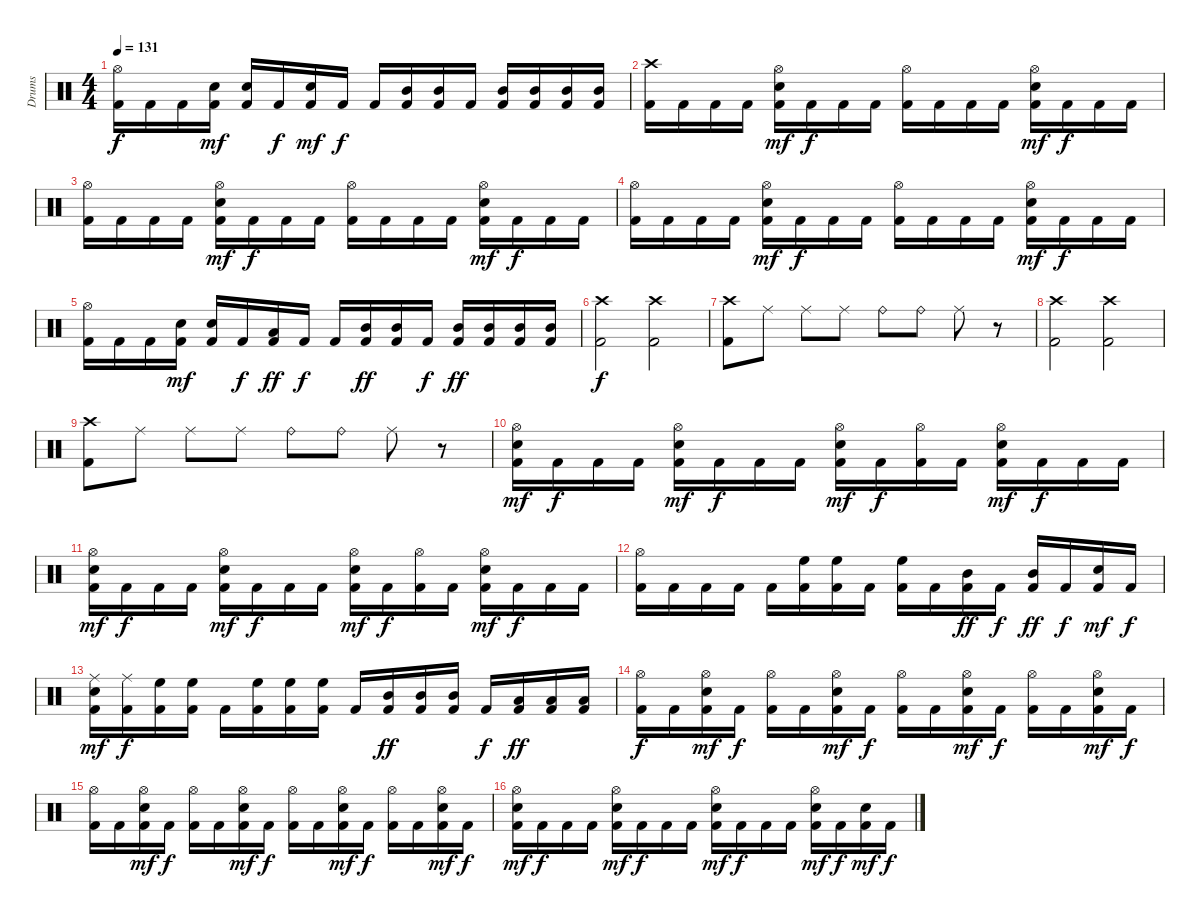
\track ("Drums" "Drums") {instrument percussion}
\staff {score}
\articulation defaults
\ts (4 4)
\tempo 131
\clef neutral
\ks c
("Hi-Hat (open)" "Kick (hit) 2").16{dy f} "Kick (hit) 2".16 "Kick (hit) 2".16 ("Snare (hit) 2" "Kick (hit) 2").16{dy mf} ("Snare (hit) 2" "Kick (hit) 2").16 "Kick (hit) 2".16{dy f} ("Snare (hit) 2" "Kick (hit) 2").16{dy mf} "Kick (hit) 2".16{dy f} "Kick (hit) 2".16 ("Mid Tom (hit)" "Kick (hit) 2").16 ("Mid Tom (hit)" "Kick (hit) 2").16 "Kick (hit) 2".16 ("Mid Tom (hit)" "Kick (hit) 2").16 ("Mid Tom (hit)" "Kick (hit) 2").16 ("Mid Tom (hit)" "Kick (hit) 2").16 ("Mid Tom (hit)" "Kick (hit) 2").16 |
("Crash high (hit)" "Kick (hit) 2").16 "Kick (hit) 2".16 "Kick (hit) 2".16 "Kick (hit) 2".16 ("Hi-Hat (open)" "Snare (hit) 2" "Kick (hit) 2").16{dy mf} "Kick (hit) 2".16{dy f} "Kick (hit) 2".16 "Kick (hit) 2".16 ("Hi-Hat (open)" "Kick (hit) 2").16 "Kick (hit) 2".16 "Kick (hit) 2".16 "Kick (hit) 2".16 ("Hi-Hat (open)" "Snare (hit) 2" "Kick (hit) 2").16{dy mf} "Kick (hit) 2".16{dy f} "Kick (hit) 2".16 "Kick (hit) 2".16 |
("Hi-Hat (open)" "Kick (hit) 2").16 "Kick (hit) 2".16 "Kick (hit) 2".16 "Kick (hit) 2".16 ("Hi-Hat (open)" "Snare (hit) 2" "Kick (hit) 2").16{dy mf} "Kick (hit) 2".16{dy f} "Kick (hit) 2".16 "Kick (hit) 2".16 ("Hi-Hat (open)" "Kick (hit) 2").16 "Kick (hit) 2".16 "Kick (hit) 2".16 "Kick (hit) 2".16 ("Hi-Hat (open)" "Snare (hit) 2" "Kick (hit) 2").16{dy mf} "Kick (hit) 2".16{dy f} "Kick (hit) 2".16 "Kick (hit) 2".16 |
("Hi-Hat (open)" "Kick (hit) 2").16 "Kick (hit) 2".16 "Kick (hit) 2".16 "Kick (hit) 2".16 ("Hi-Hat (open)" "Snare (hit) 2" "Kick (hit) 2").16{dy mf} "Kick (hit) 2".16{dy f} "Kick (hit) 2".16 "Kick (hit) 2".16 ("Hi-Hat (open)" "Kick (hit) 2").16 "Kick (hit) 2".16 "Kick (hit) 2".16 "Kick (hit) 2".16 ("Hi-Hat (open)" "Snare (hit) 2" "Kick (hit) 2").16{dy mf} "Kick (hit) 2".16{dy f} "Kick (hit) 2".16 "Kick (hit) 2".16 |
("Hi-Hat (open)" "Kick (hit) 2").16 "Kick (hit) 2".16 "Kick (hit) 2".16 ("Snare (hit) 2" "Kick (hit) 2").16{dy mf} ("Snare (hit) 2" "Kick (hit) 2").16 "Kick (hit) 2".16{dy f} ("Low Tom (hit)" "Kick (hit) 2").16{dy ff} "Kick (hit) 2".16{dy f} "Kick (hit) 2".16 ("Mid Tom (hit)" "Kick (hit) 2").16{dy ff} ("Mid Tom (hit)" "Kick (hit) 2").16 "Kick (hit) 2".16{dy f} ("Mid Tom (hit)" "Kick (hit) 2").16{dy ff} ("Mid Tom (hit)" "Kick (hit) 2").16 ("Mid Tom (hit)" "Kick (hit) 2").16 ("Mid Tom (hit)" "Kick (hit) 2").16 |
\section ("" "")
("Crash high (hit)" "Kick (hit) 2").2{dy f} ("Crash high (hit)" "Kick (hit) 2").2 |
("Crash high (hit)" "Kick (hit) 2").8 "Ride (middle)".8 "Ride (middle)".8 "Ride (middle)".8 "Ride (bell)".8 "Ride (bell)".8 "Ride (middle)".8 r.8 |
("Crash high (hit)" "Kick (hit) 2").2 ("Crash high (hit)" "Kick (hit) 2").2 |
("Crash high (hit)" "Kick (hit) 2").8 "Ride (middle)".8 "Ride (middle)".8 "Ride (middle)".8 "Ride (bell)".8 "Ride (bell)".8 "Ride (middle)".8 r.8 |
\section ("" "")
("Hi-Hat (open)" "Snare (hit) 2" "Kick (hit) 2").16{dy mf} "Kick (hit) 2".16{dy f} "Kick (hit) 2".16 "Kick (hit) 2".16 ("Hi-Hat (open)" "Snare (hit) 2" "Kick (hit) 2").16{dy mf} "Kick (hit) 2".16{dy f} "Kick (hit) 2".16 "Kick (hit) 2".16 ("Hi-Hat (open)" "Snare (hit) 2" "Kick (hit) 2").16{dy mf} "Kick (hit) 2".16{dy f} ("Hi-Hat (open)" "Kick (hit) 2").16 "Kick (hit) 2".16 ("Hi-Hat (open)" "Snare (hit) 2" "Kick (hit) 2").16{dy mf} "Kick (hit) 2".16{dy f} "Kick (hit) 2".16 "Kick (hit) 2".16 |
("Hi-Hat (open)" "Snare (hit) 2" "Kick (hit) 2").16{dy mf} "Kick (hit) 2".16{dy f} "Kick (hit) 2".16 "Kick (hit) 2".16 ("Hi-Hat (open)" "Snare (hit) 2" "Kick (hit) 2").16{dy mf} "Kick (hit) 2".16{dy f} "Kick (hit) 2".16 "Kick (hit) 2".16 ("Hi-Hat (open)" "Snare (hit) 2" "Kick (hit) 2").16{dy mf} "Kick (hit) 2".16{dy f} ("Hi-Hat (open)" "Kick (hit) 2").16 "Kick (hit) 2".16 ("Hi-Hat (open)" "Snare (hit) 2" "Kick (hit) 2").16{dy mf} "Kick (hit) 2".16{dy f} "Kick (hit) 2".16 "Kick (hit) 2".16 |
("Hi-Hat (open)" "Kick (hit) 2").16 "Kick (hit) 2".16 "Kick (hit) 2".16 "Kick (hit) 2".16 "Kick (hit) 2".16 ("High Floor Tom (hit)" "Kick (hit) 2").16 ("High Floor Tom (hit)" "Kick (hit) 2").16 "Kick (hit) 2".16 ("High Floor Tom (hit)" "Kick (hit) 2").16 "Kick (hit) 2".16 ("Mid Tom (hit)" "Kick (hit) 2").16{dy ff} "Kick (hit) 2".16{dy f} ("Mid Tom (hit)" "Kick (hit) 2").16{dy ff} "Kick (hit) 2".16{dy f} ("Snare (hit) 2" "Kick (hit) 2").16{dy mf} "Kick (hit) 2".16{dy f} |
("Ride (middle)" "Snare (hit) 2" "Kick (hit) 2").16{dy mf} ("Ride (middle)" "Kick (hit) 2").16{dy f} ("High Floor Tom (hit)" "Kick (hit) 2").16 ("High Floor Tom (hit)" "Kick (hit) 2").16 "Kick (hit) 2".16 ("High Floor Tom (hit)" "Kick (hit) 2").16 ("High Floor Tom (hit)" "Kick (hit) 2").16 ("High Floor Tom (hit)" "Kick (hit) 2").16 "Kick (hit) 2".16 ("Mid Tom (hit)" "Kick (hit) 2").16{dy ff} ("Mid Tom (hit)" "Kick (hit) 2").16 ("Mid Tom (hit)" "Kick (hit) 2").16 "Kick (hit) 2".16{dy f} ("Low Tom (hit)" "Kick (hit) 2").16{dy ff} ("Low Tom (hit)" "Kick (hit) 2").16 ("Low Tom (hit)" "Kick (hit) 2").16 |
\section ("" "")
("Hi-Hat (open)" "Kick (hit) 2").16{dy f} "Kick (hit) 2".16 ("Hi-Hat (open)" "Snare (hit) 2" "Kick (hit) 2").16{dy mf} "Kick (hit) 2".16{dy f} ("Hi-Hat (open)" "Kick (hit) 2").16 "Kick (hit) 2".16 ("Hi-Hat (open)" "Snare (hit) 2" "Kick (hit) 2").16{dy mf} "Kick (hit) 2".16{dy f} ("Hi-Hat (open)" "Kick (hit) 2").16 "Kick (hit) 2".16 ("Hi-Hat (open)" "Snare (hit) 2" "Kick (hit) 2").16{dy mf} "Kick (hit) 2".16{dy f} ("Hi-Hat (open)" "Kick (hit) 2").16 "Kick (hit) 2".16 ("Hi-Hat (open)" "Snare (hit) 2" "Kick (hit) 2").16{dy mf} "Kick (hit) 2".16{dy f} |
("Hi-Hat (open)" "Kick (hit) 2").16 "Kick (hit) 2".16 ("Hi-Hat (open)" "Snare (hit) 2" "Kick (hit) 2").16{dy mf} "Kick (hit) 2".16{dy f} ("Hi-Hat (open)" "Kick (hit) 2").16 "Kick (hit) 2".16 ("Hi-Hat (open)" "Snare (hit) 2" "Kick (hit) 2").16{dy mf} "Kick (hit) 2".16{dy f} ("Hi-Hat (open)" "Kick (hit) 2").16 "Kick (hit) 2".16 ("Hi-Hat (open)" "Snare (hit) 2" "Kick (hit) 2").16{dy mf} "Kick (hit) 2".16{dy f} ("Hi-Hat (open)" "Kick (hit) 2").16 "Kick (hit) 2".16 ("Hi-Hat (open)" "Snare (hit) 2" "Kick (hit) 2").16{dy mf} "Kick (hit) 2".16{dy f} |
("Hi-Hat (open)" "Snare (hit) 2" "Kick (hit) 2").16{dy mf} "Kick (hit) 2".16{dy f} "Kick (hit) 2".16 "Kick (hit) 2".16 ("Hi-Hat (open)" "Snare (hit) 2" "Kick (hit) 2").16{dy mf} "Kick (hit) 2".16{dy f} "Kick (hit) 2".16 "Kick (hit) 2".16 ("Hi-Hat (open)" "Snare (hit) 2" "Kick (hit) 2").16{dy mf} "Kick (hit) 2".16{dy f} "Kick (hit) 2".16 "Kick (hit) 2".16 ("Hi-Hat (open)" "Snare (hit) 2" "Kick (hit) 2").16{dy mf} "Kick (hit) 2".16{dy f} ("Snare (hit) 2" "Kick (hit) 2").16{dy mf} "Kick (hit) 2".16{dy f}
